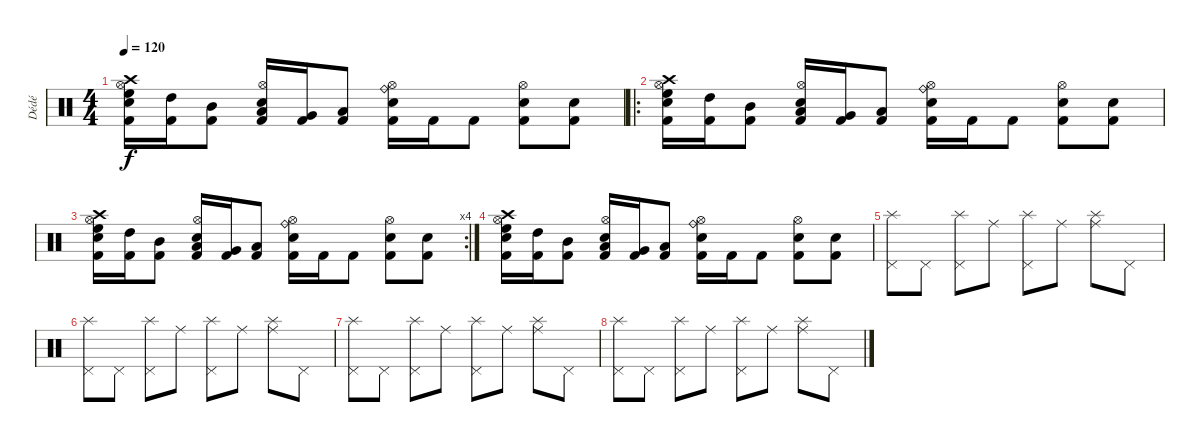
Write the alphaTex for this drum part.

\track ("Dédé" "Dédé") {instrument percussion}
\staff {score}
\articulation defaults
\ts (4 4)
\tempo 120
\clef neutral
\ks c
("Kick (hit) 2" "Electric Snare (hit)" "Crash high (hit)" "High Floor Tom (hit)" "Hi-Hat (open)").16{dy f} ("Kick (hit) 2" "High Tom (hit)").16 ("Kick (hit) 2" "Mid Tom (hit)").8 ("Kick (hit) 2" "Electric Snare (hit)" "Low Tom (hit)" "Hi-Hat (open)").16 ("Kick (hit) 2" "Very Low Tom (hit)").16 ("Kick (hit) 2" "Low Floor Tom (hit)").8 ("Kick (hit) 2" "Electric Snare (hit)" "Ride (bell)" "Hi-Hat (open)").16 "Kick (hit) 2".16 "Kick (hit) 2".8 ("Kick (hit) 2" "Electric Snare (hit)" "Hi-Hat (open)").8 ("Kick (hit) 2" "Electric Snare (hit)").8 |
\ro
("Kick (hit) 2" "Electric Snare (hit)" "Crash high (hit)" "High Floor Tom (hit)" "Hi-Hat (open)").16 ("Kick (hit) 2" "High Tom (hit)").16 ("Kick (hit) 2" "Mid Tom (hit)").8 ("Kick (hit) 2" "Electric Snare (hit)" "Low Tom (hit)" "Hi-Hat (open)").16 ("Kick (hit) 2" "Very Low Tom (hit)").16 ("Kick (hit) 2" "Low Floor Tom (hit)").8 ("Kick (hit) 2" "Electric Snare (hit)" "Ride (bell)" "Hi-Hat (open)").16 "Kick (hit) 2".16 "Kick (hit) 2".8 ("Kick (hit) 2" "Electric Snare (hit)" "Hi-Hat (open)").8 ("Kick (hit) 2" "Electric Snare (hit)").8 |
\rc 4
("Kick (hit) 2" "Electric Snare (hit)" "Crash high (hit)" "High Floor Tom (hit)" "Hi-Hat (open)").16 ("Kick (hit) 2" "High Tom (hit)").16 ("Kick (hit) 2" "Mid Tom (hit)").8 ("Kick (hit) 2" "Electric Snare (hit)" "Low Tom (hit)" "Hi-Hat (open)").16 ("Kick (hit) 2" "Very Low Tom (hit)").16 ("Kick (hit) 2" "Low Floor Tom (hit)").8 ("Kick (hit) 2" "Electric Snare (hit)" "Ride (bell)" "Hi-Hat (open)").16 "Kick (hit) 2".16 "Kick (hit) 2".8 ("Kick (hit) 2" "Electric Snare (hit)" "Hi-Hat (open)").8 ("Kick (hit) 2" "Electric Snare (hit)").8 |
("Kick (hit) 2" "Electric Snare (hit)" "Crash high (hit)" "High Floor Tom (hit)" "Hi-Hat (open)").16 ("Kick (hit) 2" "High Tom (hit)").16 ("Kick (hit) 2" "Mid Tom (hit)").8 ("Kick (hit) 2" "Electric Snare (hit)" "Low Tom (hit)" "Hi-Hat (open)").16 ("Kick (hit) 2" "Very Low Tom (hit)").16 ("Kick (hit) 2" "Low Floor Tom (hit)").8 ("Kick (hit) 2" "Electric Snare (hit)" "Ride (bell)" "Hi-Hat (open)").16 "Kick (hit) 2".16 "Kick (hit) 2".8 ("Kick (hit) 2" "Electric Snare (hit)" "Hi-Hat (open)").8 ("Kick (hit) 2" "Electric Snare (hit)").8 |
("Splash (hit)" "Pedal Hi-Hat (hit)").8 "Pedal Hi-Hat (hit)".8 ("Splash (hit)" "Pedal Hi-Hat (hit)").8 "Ride (middle)".8 ("Splash (hit)" "Pedal Hi-Hat (hit)").8 "Ride (middle)".8 ("Splash (hit)" "Ride (middle)").8 "Pedal Hi-Hat (hit)".8 |
("Splash (hit)" "Pedal Hi-Hat (hit)").8 "Pedal Hi-Hat (hit)".8 ("Splash (hit)" "Pedal Hi-Hat (hit)").8 "Ride (middle)".8 ("Splash (hit)" "Pedal Hi-Hat (hit)").8 "Ride (middle)".8 ("Splash (hit)" "Ride (middle)").8 "Pedal Hi-Hat (hit)".8 |
("Splash (hit)" "Pedal Hi-Hat (hit)").8 "Pedal Hi-Hat (hit)".8 ("Splash (hit)" "Pedal Hi-Hat (hit)").8 "Ride (middle)".8 ("Splash (hit)" "Pedal Hi-Hat (hit)").8 "Ride (middle)".8 ("Splash (hit)" "Ride (middle)").8 "Pedal Hi-Hat (hit)".8 |
("Splash (hit)" "Pedal Hi-Hat (hit)").8 "Pedal Hi-Hat (hit)".8 ("Splash (hit)" "Pedal Hi-Hat (hit)").8 "Ride (middle)".8 ("Splash (hit)" "Pedal Hi-Hat (hit)").8 "Ride (middle)".8 ("Splash (hit)" "Ride (middle)").8 "Pedal Hi-Hat (hit)".8
